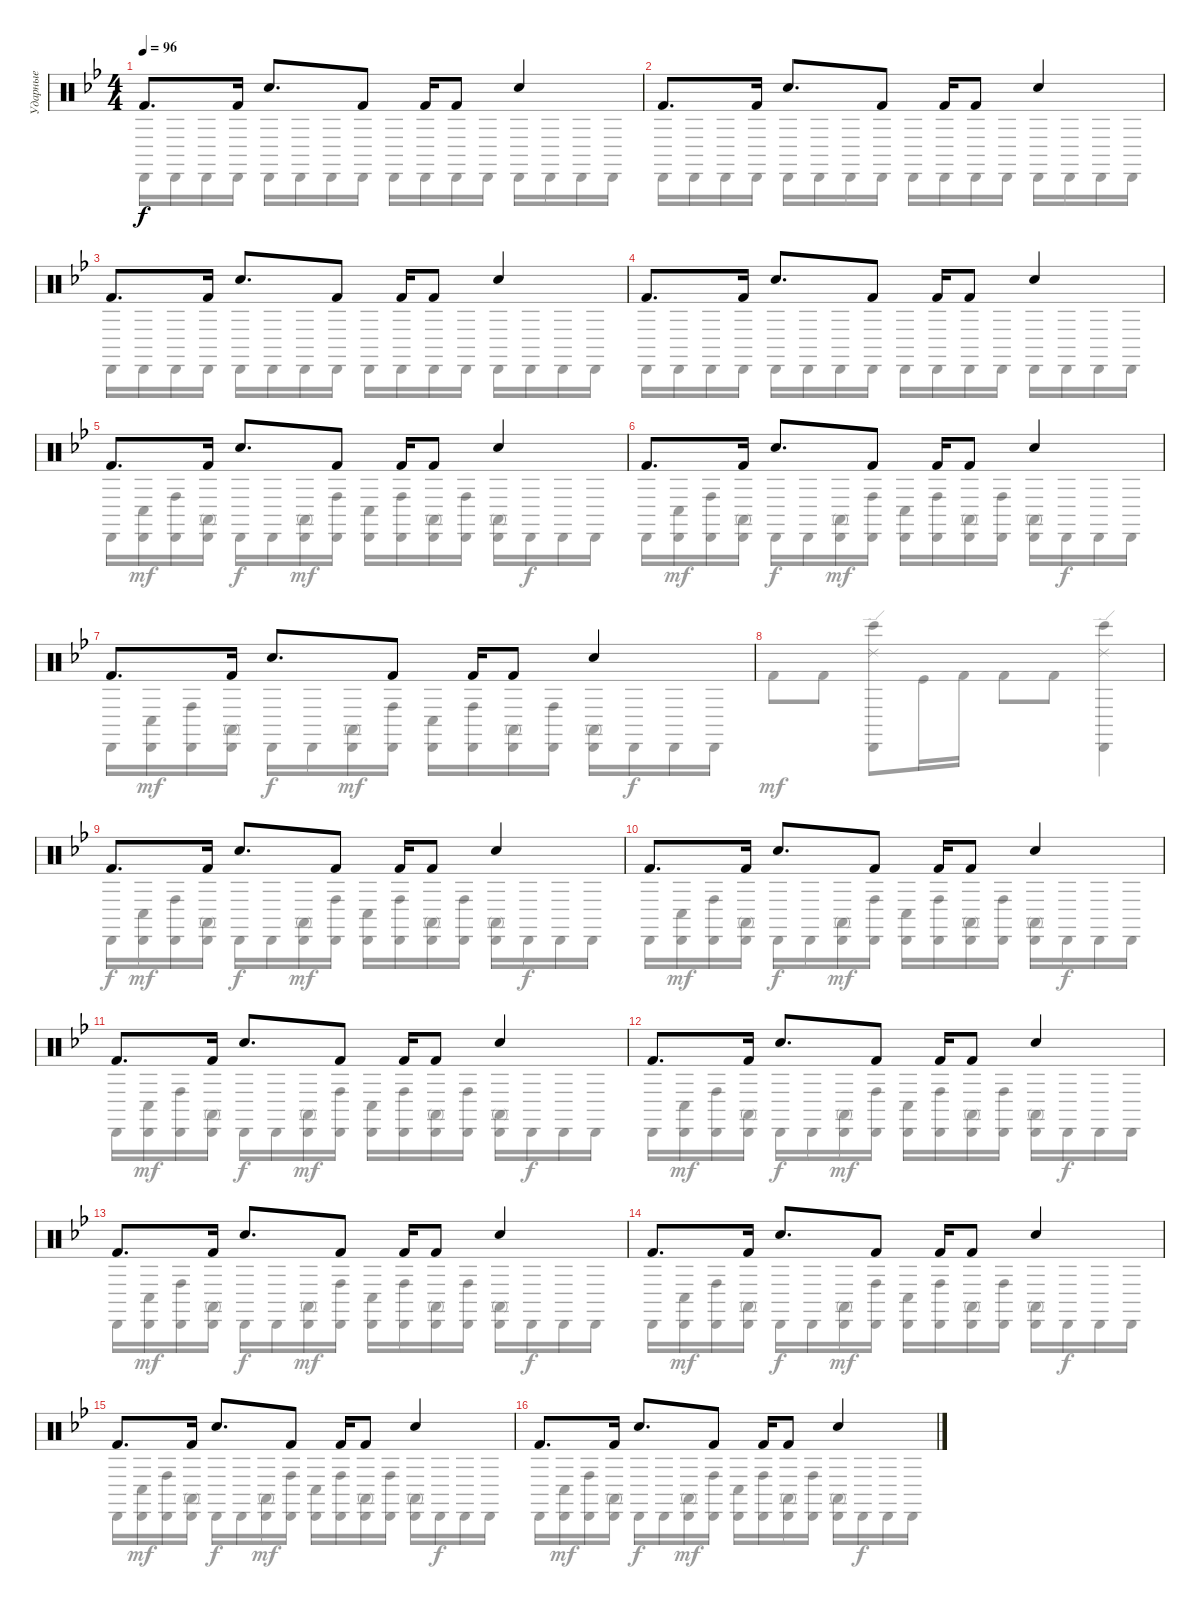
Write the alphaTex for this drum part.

\track ("Ударные" "Ударные") {instrument percussion}
\staff {score}
\articulation defaults
\voice
\ts (4 4)
\tempo 96
\clef neutral
\ks bb "Kick (hit) 2".8{d dy f} "Kick (hit) 2".16 "Hand Clap (hit)".8{d} "Kick (hit) 2".8 "Kick (hit) 2".16 "Kick (hit) 2".8 "Hand Clap (hit)".4
|
"Kick (hit) 2".8{d} "Kick (hit) 2".16 "Hand Clap (hit)".8{d} "Kick (hit) 2".8 "Kick (hit) 2".16 "Kick (hit) 2".8 "Hand Clap (hit)".4 |
"Kick (hit) 2".8{d} "Kick (hit) 2".16 "Hand Clap (hit)".8{d} "Kick (hit) 2".8 "Kick (hit) 2".16 "Kick (hit) 2".8 "Hand Clap (hit)".4 |
"Kick (hit) 2".8{d} "Kick (hit) 2".16 "Hand Clap (hit)".8{d} "Kick (hit) 2".8 "Kick (hit) 2".16 "Kick (hit) 2".8 "Hand Clap (hit)".4 |
"Kick (hit) 2".8{d} "Kick (hit) 2".16 "Hand Clap (hit)".8{d} "Kick (hit) 2".8 "Kick (hit) 2".16 "Kick (hit) 2".8 "Hand Clap (hit)".4 |
"Kick (hit) 2".8{d} "Kick (hit) 2".16 "Hand Clap (hit)".8{d} "Kick (hit) 2".8 "Kick (hit) 2".16 "Kick (hit) 2".8 "Hand Clap (hit)".4 |
"Kick (hit) 2".8{d} "Kick (hit) 2".16 "Hand Clap (hit)".8{d} "Kick (hit) 2".8 "Kick (hit) 2".16 "Kick (hit) 2".8 "Hand Clap (hit)".4 |
|
"Kick (hit) 2".8{d} "Kick (hit) 2".16 "Hand Clap (hit)".8{d} "Kick (hit) 2".8 "Kick (hit) 2".16 "Kick (hit) 2".8 "Hand Clap (hit)".4 |
"Kick (hit) 2".8{d} "Kick (hit) 2".16 "Hand Clap (hit)".8{d} "Kick (hit) 2".8 "Kick (hit) 2".16 "Kick (hit) 2".8 "Hand Clap (hit)".4 |
"Kick (hit) 2".8{d} "Kick (hit) 2".16 "Hand Clap (hit)".8{d} "Kick (hit) 2".8 "Kick (hit) 2".16 "Kick (hit) 2".8 "Hand Clap (hit)".4 |
"Kick (hit) 2".8{d} "Kick (hit) 2".16 "Hand Clap (hit)".8{d} "Kick (hit) 2".8 "Kick (hit) 2".16 "Kick (hit) 2".8 "Hand Clap (hit)".4 |
"Kick (hit) 2".8{d} "Kick (hit) 2".16 "Hand Clap (hit)".8{d} "Kick (hit) 2".8 "Kick (hit) 2".16 "Kick (hit) 2".8 "Hand Clap (hit)".4 |
"Kick (hit) 2".8{d} "Kick (hit) 2".16 "Hand Clap (hit)".8{d} "Kick (hit) 2".8 "Kick (hit) 2".16 "Kick (hit) 2".8 "Hand Clap (hit)".4 |
"Kick (hit) 2".8{d} "Kick (hit) 2".16 "Hand Clap (hit)".8{d} "Kick (hit) 2".8 "Kick (hit) 2".16 "Kick (hit) 2".8 "Hand Clap (hit)".4 |
"Kick (hit) 2".8{d} "Kick (hit) 2".16 "Hand Clap (hit)".8{d} "Kick (hit) 2".8 "Kick (hit) 2".16 "Kick (hit) 2".8 "Hand Clap (hit)".4
\voice
\clef neutral
\ottava regular
\simile none
\ks bb "Cabasa (hit)".16{dy f} "Cabasa (hit)".16 "Cabasa (hit)".16 "Cabasa (hit)".16 "Cabasa (hit)".16 "Cabasa (hit)".16 "Cabasa (hit)".16 "Cabasa (hit)".16 "Cabasa (hit)".16 "Cabasa (hit)".16 "Cabasa (hit)".16 "Cabasa (hit)".16 "Cabasa (hit)".16 "Cabasa (hit)".16 "Cabasa (hit)".16 "Cabasa (hit)".16
|
"Cabasa (hit)".16 "Cabasa (hit)".16 "Cabasa (hit)".16 "Cabasa (hit)".16 "Cabasa (hit)".16 "Cabasa (hit)".16 "Cabasa (hit)".16 "Cabasa (hit)".16 "Cabasa (hit)".16 "Cabasa (hit)".16 "Cabasa (hit)".16 "Cabasa (hit)".16 "Cabasa (hit)".16 "Cabasa (hit)".16 "Cabasa (hit)".16 "Cabasa (hit)".16 |
"Cabasa (hit)".16 "Cabasa (hit)".16 "Cabasa (hit)".16 "Cabasa (hit)".16 "Cabasa (hit)".16 "Cabasa (hit)".16 "Cabasa (hit)".16 "Cabasa (hit)".16 "Cabasa (hit)".16 "Cabasa (hit)".16 "Cabasa (hit)".16 "Cabasa (hit)".16 "Cabasa (hit)".16 "Cabasa (hit)".16 "Cabasa (hit)".16 "Cabasa (hit)".16 |
"Cabasa (hit)".16 "Cabasa (hit)".16 "Cabasa (hit)".16 "Cabasa (hit)".16 "Cabasa (hit)".16 "Cabasa (hit)".16 "Cabasa (hit)".16 "Cabasa (hit)".16 "Cabasa (hit)".16 "Cabasa (hit)".16 "Cabasa (hit)".16 "Cabasa (hit)".16 "Cabasa (hit)".16 "Cabasa (hit)".16 "Cabasa (hit)".16 "Cabasa (hit)".16 |
"Cabasa (hit)".16 ("Cabasa (hit)" "Conga low (hit)").16{dy mf} ("Cabasa (hit)" "Conga high (hit)").16 ("Cabasa (hit)" "Conga high (mute)").16 "Cabasa (hit)".16{dy f} "Cabasa (hit)".16 ("Cabasa (hit)" "Conga high (mute)").16{dy mf} ("Cabasa (hit)" "Conga high (hit)").16 ("Cabasa (hit)" "Conga low (hit)").16 ("Cabasa (hit)" "Conga high (hit)").16 ("Cabasa (hit)" "Conga high (mute)").16 ("Cabasa (hit)" "Conga high (hit)").16 ("Cabasa (hit)" "Conga high (mute)").16 "Cabasa (hit)".16{dy f} "Cabasa (hit)".16 "Cabasa (hit)".16 |
"Cabasa (hit)".16 ("Cabasa (hit)" "Conga low (hit)").16{dy mf} ("Cabasa (hit)" "Conga high (hit)").16 ("Cabasa (hit)" "Conga high (mute)").16 "Cabasa (hit)".16{dy f} "Cabasa (hit)".16 ("Cabasa (hit)" "Conga high (mute)").16{dy mf} ("Cabasa (hit)" "Conga high (hit)").16 ("Cabasa (hit)" "Conga low (hit)").16 ("Cabasa (hit)" "Conga high (hit)").16 ("Cabasa (hit)" "Conga high (mute)").16 ("Cabasa (hit)" "Conga high (hit)").16 ("Cabasa (hit)" "Conga high (mute)").16 "Cabasa (hit)".16{dy f} "Cabasa (hit)".16 "Cabasa (hit)".16 |
"Cabasa (hit)".16 ("Cabasa (hit)" "Conga low (hit)").16{dy mf} ("Cabasa (hit)" "Conga high (hit)").16 ("Cabasa (hit)" "Conga high (mute)").16 "Cabasa (hit)".16{dy f} "Cabasa (hit)".16 ("Cabasa (hit)" "Conga high (mute)").16{dy mf} ("Cabasa (hit)" "Conga high (hit)").16 ("Cabasa (hit)" "Conga low (hit)").16 ("Cabasa (hit)" "Conga high (hit)").16 ("Cabasa (hit)" "Conga high (mute)").16 ("Cabasa (hit)" "Conga high (hit)").16 ("Cabasa (hit)" "Conga high (mute)").16 "Cabasa (hit)".16{dy f} "Cabasa (hit)".16 "Cabasa (hit)".16 |
"Kick (hit) 2".8{dy mf} "Kick (hit) 2".8 ("Bongo High (hit)" "Cabasa (hit)" "Ride (edge) 2").8 "Kick (hit)".16 "Kick (hit) 2".16 "Kick (hit) 2".8 "Kick (hit) 2".8 ("Bongo High (hit)" "Cabasa (hit)" "Ride (edge) 2").4 |
"Cabasa (hit)".16{dy f} ("Cabasa (hit)" "Conga low (hit)").16{dy mf} ("Cabasa (hit)" "Conga high (hit)").16 ("Cabasa (hit)" "Conga high (mute)").16 "Cabasa (hit)".16{dy f} "Cabasa (hit)".16 ("Cabasa (hit)" "Conga high (mute)").16{dy mf} ("Cabasa (hit)" "Conga high (hit)").16 ("Cabasa (hit)" "Conga low (hit)").16 ("Cabasa (hit)" "Conga high (hit)").16 ("Cabasa (hit)" "Conga high (mute)").16 ("Cabasa (hit)" "Conga high (hit)").16 ("Cabasa (hit)" "Conga high (mute)").16 "Cabasa (hit)".16{dy f} "Cabasa (hit)".16 "Cabasa (hit)".16 |
"Cabasa (hit)".16 ("Cabasa (hit)" "Conga low (hit)").16{dy mf} ("Cabasa (hit)" "Conga high (hit)").16 ("Cabasa (hit)" "Conga high (mute)").16 "Cabasa (hit)".16{dy f} "Cabasa (hit)".16 ("Cabasa (hit)" "Conga high (mute)").16{dy mf} ("Cabasa (hit)" "Conga high (hit)").16 ("Cabasa (hit)" "Conga low (hit)").16 ("Cabasa (hit)" "Conga high (hit)").16 ("Cabasa (hit)" "Conga high (mute)").16 ("Cabasa (hit)" "Conga high (hit)").16 ("Cabasa (hit)" "Conga high (mute)").16 "Cabasa (hit)".16{dy f} "Cabasa (hit)".16 "Cabasa (hit)".16 |
"Cabasa (hit)".16 ("Cabasa (hit)" "Conga low (hit)").16{dy mf} ("Cabasa (hit)" "Conga high (hit)").16 ("Cabasa (hit)" "Conga high (mute)").16 "Cabasa (hit)".16{dy f} "Cabasa (hit)".16 ("Cabasa (hit)" "Conga high (mute)").16{dy mf} ("Cabasa (hit)" "Conga high (hit)").16 ("Cabasa (hit)" "Conga low (hit)").16 ("Cabasa (hit)" "Conga high (hit)").16 ("Cabasa (hit)" "Conga high (mute)").16 ("Cabasa (hit)" "Conga high (hit)").16 ("Cabasa (hit)" "Conga high (mute)").16 "Cabasa (hit)".16{dy f} "Cabasa (hit)".16 "Cabasa (hit)".16 |
"Cabasa (hit)".16 ("Cabasa (hit)" "Conga low (hit)").16{dy mf} ("Cabasa (hit)" "Conga high (hit)").16 ("Cabasa (hit)" "Conga high (mute)").16 "Cabasa (hit)".16{dy f} "Cabasa (hit)".16 ("Cabasa (hit)" "Conga high (mute)").16{dy mf} ("Cabasa (hit)" "Conga high (hit)").16 ("Cabasa (hit)" "Conga low (hit)").16 ("Cabasa (hit)" "Conga high (hit)").16 ("Cabasa (hit)" "Conga high (mute)").16 ("Cabasa (hit)" "Conga high (hit)").16 ("Cabasa (hit)" "Conga high (mute)").16 "Cabasa (hit)".16{dy f} "Cabasa (hit)".16 "Cabasa (hit)".16 |
"Cabasa (hit)".16 ("Cabasa (hit)" "Conga low (hit)").16{dy mf} ("Cabasa (hit)" "Conga high (hit)").16 ("Cabasa (hit)" "Conga high (mute)").16 "Cabasa (hit)".16{dy f} "Cabasa (hit)".16 ("Cabasa (hit)" "Conga high (mute)").16{dy mf} ("Cabasa (hit)" "Conga high (hit)").16 ("Cabasa (hit)" "Conga low (hit)").16 ("Cabasa (hit)" "Conga high (hit)").16 ("Cabasa (hit)" "Conga high (mute)").16 ("Cabasa (hit)" "Conga high (hit)").16 ("Cabasa (hit)" "Conga high (mute)").16 "Cabasa (hit)".16{dy f} "Cabasa (hit)".16 "Cabasa (hit)".16 |
"Cabasa (hit)".16 ("Cabasa (hit)" "Conga low (hit)").16{dy mf} ("Cabasa (hit)" "Conga high (hit)").16 ("Cabasa (hit)" "Conga high (mute)").16 "Cabasa (hit)".16{dy f} "Cabasa (hit)".16 ("Cabasa (hit)" "Conga high (mute)").16{dy mf} ("Cabasa (hit)" "Conga high (hit)").16 ("Cabasa (hit)" "Conga low (hit)").16 ("Cabasa (hit)" "Conga high (hit)").16 ("Cabasa (hit)" "Conga high (mute)").16 ("Cabasa (hit)" "Conga high (hit)").16 ("Cabasa (hit)" "Conga high (mute)").16 "Cabasa (hit)".16{dy f} "Cabasa (hit)".16 "Cabasa (hit)".16 |
"Cabasa (hit)".16 ("Cabasa (hit)" "Conga low (hit)").16{dy mf} ("Cabasa (hit)" "Conga high (hit)").16 ("Cabasa (hit)" "Conga high (mute)").16 "Cabasa (hit)".16{dy f} "Cabasa (hit)".16 ("Cabasa (hit)" "Conga high (mute)").16{dy mf} ("Cabasa (hit)" "Conga high (hit)").16 ("Cabasa (hit)" "Conga low (hit)").16 ("Cabasa (hit)" "Conga high (hit)").16 ("Cabasa (hit)" "Conga high (mute)").16 ("Cabasa (hit)" "Conga high (hit)").16 ("Cabasa (hit)" "Conga high (mute)").16 "Cabasa (hit)".16{dy f} "Cabasa (hit)".16 "Cabasa (hit)".16 |
"Cabasa (hit)".16 ("Cabasa (hit)" "Conga low (hit)").16{dy mf} ("Cabasa (hit)" "Conga high (hit)").16 ("Cabasa (hit)" "Conga high (mute)").16 "Cabasa (hit)".16{dy f} "Cabasa (hit)".16 ("Cabasa (hit)" "Conga high (mute)").16{dy mf} ("Cabasa (hit)" "Conga high (hit)").16 ("Cabasa (hit)" "Conga low (hit)").16 ("Cabasa (hit)" "Conga high (hit)").16 ("Cabasa (hit)" "Conga high (mute)").16 ("Cabasa (hit)" "Conga high (hit)").16 ("Cabasa (hit)" "Conga high (mute)").16 "Cabasa (hit)".16{dy f} "Cabasa (hit)".16 "Cabasa (hit)".16
